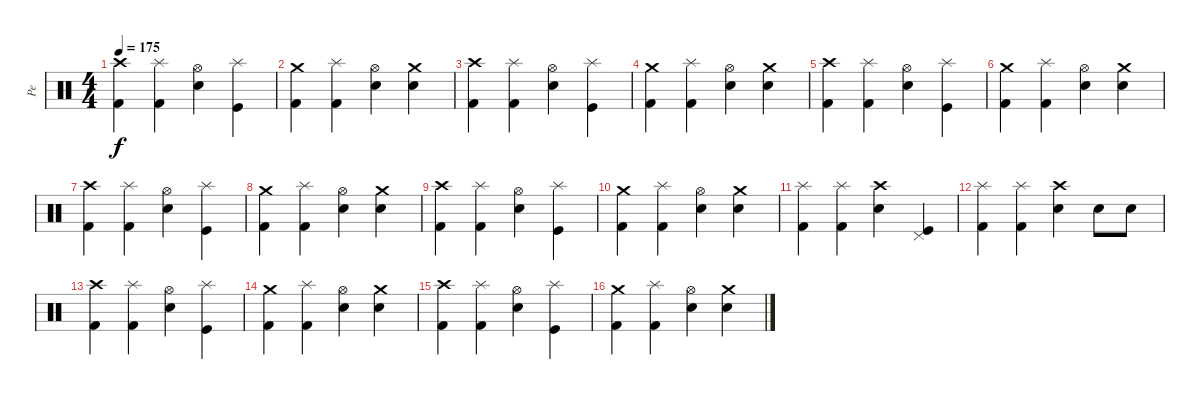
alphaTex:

\track ("Pe" "Pe") {instrument percussion}
\staff {score}
\articulation defaults
\ts (4 4)
\tempo 175
\clef neutral
\ks c
("Kick (hit) 2" "Crash high (hit)").4{dy f} ("Kick (hit) 2" "Splash (hit)").4 ("Electric Snare (hit)" "Hi-Hat (open)").4 ("Kick (hit)" "Splash (hit)").4 |
("Kick (hit) 2" "Crash medium (hit)").4 ("Kick (hit) 2" "Splash (hit)").4 ("Electric Snare (hit)" "Hi-Hat (open)").4 ("Electric Snare (hit)" "Crash medium (hit)").4 |
("Kick (hit) 2" "Crash high (hit)").4 ("Kick (hit) 2" "Splash (hit)").4 ("Electric Snare (hit)" "Hi-Hat (open)").4 ("Kick (hit)" "Splash (hit)").4 |
("Kick (hit) 2" "Crash medium (hit)").4 ("Kick (hit) 2" "Splash (hit)").4 ("Electric Snare (hit)" "Hi-Hat (open)").4 ("Electric Snare (hit)" "Crash medium (hit)").4 |
("Kick (hit) 2" "Crash high (hit)").4 ("Kick (hit) 2" "Splash (hit)").4 ("Electric Snare (hit)" "Hi-Hat (open)").4 ("Kick (hit)" "Splash (hit)").4 |
("Kick (hit) 2" "Crash medium (hit)").4 ("Kick (hit) 2" "Splash (hit)").4 ("Electric Snare (hit)" "Hi-Hat (open)").4 ("Electric Snare (hit)" "Crash medium (hit)").4 |
("Kick (hit) 2" "Crash high (hit)").4 ("Kick (hit) 2" "Splash (hit)").4 ("Electric Snare (hit)" "Hi-Hat (open)").4 ("Kick (hit)" "Splash (hit)").4 |
("Kick (hit) 2" "Crash medium (hit)").4 ("Kick (hit) 2" "Splash (hit)").4 ("Electric Snare (hit)" "Hi-Hat (open)").4 ("Electric Snare (hit)" "Crash medium (hit)").4 |
("Kick (hit) 2" "Crash high (hit)").4 ("Kick (hit) 2" "Splash (hit)").4 ("Electric Snare (hit)" "Hi-Hat (open)").4 ("Kick (hit)" "Splash (hit)").4 |
("Kick (hit) 2" "Crash medium (hit)").4 ("Kick (hit) 2" "Splash (hit)").4 ("Electric Snare (hit)" "Hi-Hat (open)").4 ("Electric Snare (hit)" "Crash medium (hit)").4 |
("Kick (hit) 2" "Splash (hit)").4 ("Kick (hit) 2" "Splash (hit)").4 ("Electric Snare (hit)" "Crash high (hit)").4 ("Kick (hit)" "Pedal Hi-Hat (hit)").4 |
("Kick (hit) 2" "Splash (hit)").4 ("Kick (hit) 2" "Splash (hit)").4 ("Electric Snare (hit)" "Crash high (hit)").4 "Electric Snare (hit)".8 "Electric Snare (hit)".8 |
("Kick (hit) 2" "Crash high (hit)").4 ("Kick (hit) 2" "Splash (hit)").4 ("Electric Snare (hit)" "Hi-Hat (open)").4 ("Kick (hit)" "Splash (hit)").4 |
("Kick (hit) 2" "Crash medium (hit)").4 ("Kick (hit) 2" "Splash (hit)").4 ("Electric Snare (hit)" "Hi-Hat (open)").4 ("Electric Snare (hit)" "Crash medium (hit)").4 |
("Kick (hit) 2" "Crash high (hit)").4 ("Kick (hit) 2" "Splash (hit)").4 ("Electric Snare (hit)" "Hi-Hat (open)").4 ("Kick (hit)" "Splash (hit)").4 |
("Kick (hit) 2" "Crash medium (hit)").4 ("Kick (hit) 2" "Splash (hit)").4 ("Electric Snare (hit)" "Hi-Hat (open)").4 ("Electric Snare (hit)" "Crash medium (hit)").4
